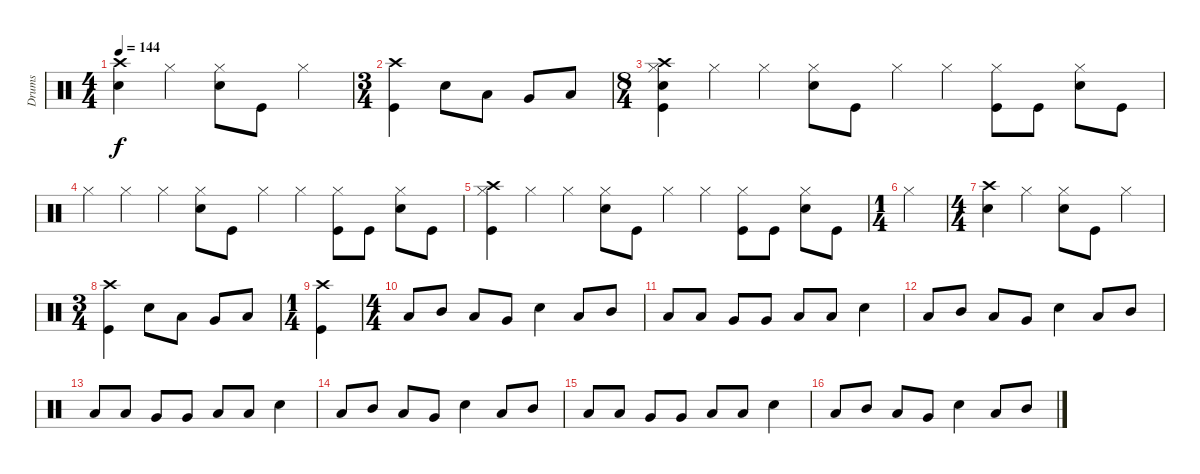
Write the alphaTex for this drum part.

\track ("Drums" "Drums") {instrument percussion}
\staff {score}
\articulation defaults
\ts (4 4)
\tempo 144
\clef neutral
\ks c
("Crash high (hit)" "Snare (hit) 2").4{dy f} "Hi-Hat (closed)".4 ("Hi-Hat (closed)" "Snare (hit) 2").8 "Kick (hit)".8 "Hi-Hat (closed)".4 |
\ts (3 4)
("Crash high (hit)" "Kick (hit)").4 "Snare (hit) 2".8 "Low Tom (hit)".8 "Very Low Tom (hit)".8 "Low Floor Tom (hit)".8 |
\ts (8 4)
("Crash high (hit)" "Hi-Hat (closed)" "Snare (hit) 2" "Kick (hit)").4 "Hi-Hat (closed)".4 "Hi-Hat (closed)".4 ("Hi-Hat (closed)" "Snare (hit) 2").8 "Kick (hit)".8 "Hi-Hat (closed)".4 "Hi-Hat (closed)".4 ("Hi-Hat (closed)" "Kick (hit)").8 "Kick (hit)".8 ("Hi-Hat (closed)" "Snare (hit) 2").8 "Kick (hit)".8 |
"Hi-Hat (closed)".4 "Hi-Hat (closed)".4 "Hi-Hat (closed)".4 ("Hi-Hat (closed)" "Snare (hit) 2").8 "Kick (hit)".8 "Hi-Hat (closed)".4 "Hi-Hat (closed)".4 ("Hi-Hat (closed)" "Kick (hit)").8 "Kick (hit)".8 ("Hi-Hat (closed)" "Snare (hit) 2").8 "Kick (hit)".8 |
("Crash high (hit)" "Hi-Hat (closed)" "Kick (hit)").4 "Hi-Hat (closed)".4 "Hi-Hat (closed)".4 ("Hi-Hat (closed)" "Snare (hit) 2").8 "Kick (hit)".8 "Hi-Hat (closed)".4 "Hi-Hat (closed)".4 ("Hi-Hat (closed)" "Kick (hit)").8 "Kick (hit)".8 ("Hi-Hat (closed)" "Snare (hit) 2").8 "Kick (hit)".8 |
\ts (1 4)
"Hi-Hat (closed)".4 |
\ts (4 4)
("Crash high (hit)" "Snare (hit) 2").4 "Hi-Hat (closed)".4 ("Hi-Hat (closed)" "Snare (hit) 2").8 "Kick (hit)".8 "Hi-Hat (closed)".4 |
\ts (3 4)
("Crash high (hit)" "Kick (hit)").4 "Snare (hit) 2".8 "Low Tom (hit)".8 "Very Low Tom (hit)".8 "Low Floor Tom (hit)".8 |
\ts (1 4)
("Crash high (hit)" "Kick (hit)").4 |
\ts (4 4)
"Low Tom (hit)".8 "Mid Tom (hit)".8 "Low Tom (hit)".8 "Very Low Tom (hit)".8 "Snare (hit) 2".4 "Low Tom (hit)".8 "Mid Tom (hit)".8 |
"Low Tom (hit)".8 "Low Tom (hit)".8 "Very Low Tom (hit)".8 "Very Low Tom (hit)".8 "Low Floor Tom (hit)".8 "Low Floor Tom (hit)".8 "Snare (hit) 2".4 |
"Low Tom (hit)".8 "Mid Tom (hit)".8 "Low Tom (hit)".8 "Very Low Tom (hit)".8 "Snare (hit) 2".4 "Low Tom (hit)".8 "Mid Tom (hit)".8 |
"Low Tom (hit)".8 "Low Tom (hit)".8 "Very Low Tom (hit)".8 "Very Low Tom (hit)".8 "Low Floor Tom (hit)".8 "Low Floor Tom (hit)".8 "Snare (hit) 2".4 |
"Low Tom (hit)".8 "Mid Tom (hit)".8 "Low Tom (hit)".8 "Very Low Tom (hit)".8 "Snare (hit) 2".4 "Low Tom (hit)".8 "Mid Tom (hit)".8 |
"Low Tom (hit)".8 "Low Tom (hit)".8 "Very Low Tom (hit)".8 "Very Low Tom (hit)".8 "Low Floor Tom (hit)".8 "Low Floor Tom (hit)".8 "Snare (hit) 2".4 |
"Low Tom (hit)".8 "Mid Tom (hit)".8 "Low Tom (hit)".8 "Very Low Tom (hit)".8 "Snare (hit) 2".4 "Low Tom (hit)".8 "Mid Tom (hit)".8
